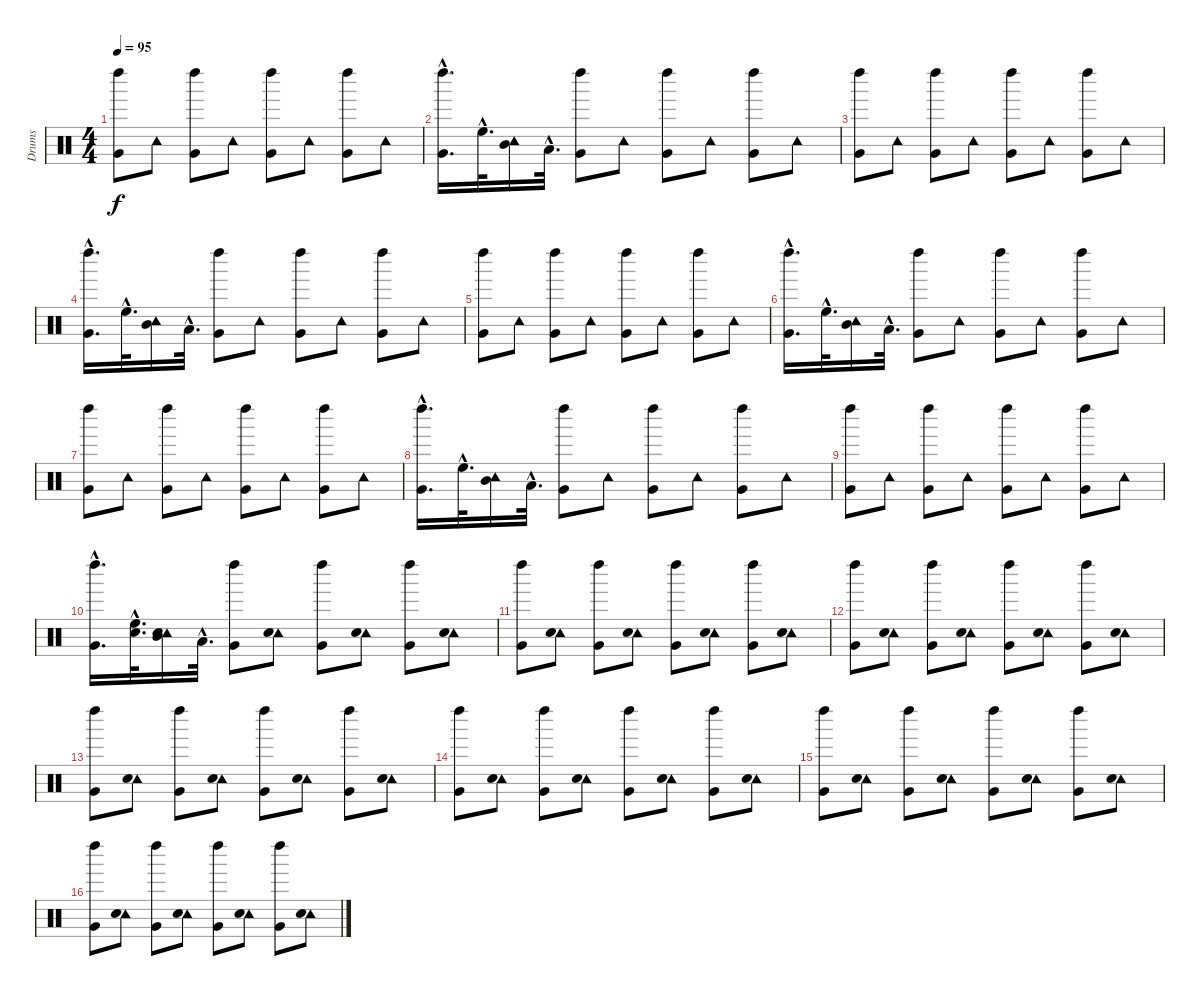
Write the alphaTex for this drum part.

\track ("Drums" "Drums") {instrument percussion}
\staff {score}
\articulation defaults
\ts (4 4)
\tempo 95
\clef neutral
\ks c
("Very Low Tom (hit)" "Left Maraca (hit)").8{dy f} "Tambourine (hit)".8 ("Very Low Tom (hit)" "Left Maraca (hit)").8 "Tambourine (hit)".8 ("Very Low Tom (hit)" "Left Maraca (hit)").8 "Tambourine (hit)".8 ("Very Low Tom (hit)" "Left Maraca (hit)").8 "Tambourine (hit)".8 |
("Very Low Tom (hit)"{hac} "Left Maraca (hit)"{hac}).16{d} "High Floor Tom (hit)"{hac}.32{d} ("Mid Tom (hit)" "Tambourine (hit)").16 "Low Tom (hit)"{hac}.32{d} ("Very Low Tom (hit)" "Left Maraca (hit)").8 "Tambourine (hit)".8 ("Very Low Tom (hit)" "Left Maraca (hit)").8 "Tambourine (hit)".8 ("Very Low Tom (hit)" "Left Maraca (hit)").8 "Tambourine (hit)".8 |
("Very Low Tom (hit)" "Left Maraca (hit)").8 "Tambourine (hit)".8 ("Very Low Tom (hit)" "Left Maraca (hit)").8 "Tambourine (hit)".8 ("Very Low Tom (hit)" "Left Maraca (hit)").8 "Tambourine (hit)".8 ("Very Low Tom (hit)" "Left Maraca (hit)").8 "Tambourine (hit)".8 |
("Very Low Tom (hit)"{hac} "Left Maraca (hit)"{hac}).16{d} "High Floor Tom (hit)"{hac}.32{d} ("Mid Tom (hit)" "Tambourine (hit)").16 "Low Tom (hit)"{hac}.32{d} ("Very Low Tom (hit)" "Left Maraca (hit)").8 "Tambourine (hit)".8 ("Very Low Tom (hit)" "Left Maraca (hit)").8 "Tambourine (hit)".8 ("Very Low Tom (hit)" "Left Maraca (hit)").8 "Tambourine (hit)".8 |
("Very Low Tom (hit)" "Left Maraca (hit)").8 "Tambourine (hit)".8 ("Very Low Tom (hit)" "Left Maraca (hit)").8 "Tambourine (hit)".8 ("Very Low Tom (hit)" "Left Maraca (hit)").8 "Tambourine (hit)".8 ("Very Low Tom (hit)" "Left Maraca (hit)").8 "Tambourine (hit)".8 |
("Very Low Tom (hit)"{hac} "Left Maraca (hit)"{hac}).16{d} "High Floor Tom (hit)"{hac}.32{d} ("Mid Tom (hit)" "Tambourine (hit)").16 "Low Tom (hit)"{hac}.32{d} ("Very Low Tom (hit)" "Left Maraca (hit)").8 "Tambourine (hit)".8 ("Very Low Tom (hit)" "Left Maraca (hit)").8 "Tambourine (hit)".8 ("Very Low Tom (hit)" "Left Maraca (hit)").8 "Tambourine (hit)".8 |
("Very Low Tom (hit)" "Left Maraca (hit)").8 "Tambourine (hit)".8 ("Very Low Tom (hit)" "Left Maraca (hit)").8 "Tambourine (hit)".8 ("Very Low Tom (hit)" "Left Maraca (hit)").8 "Tambourine (hit)".8 ("Very Low Tom (hit)" "Left Maraca (hit)").8 "Tambourine (hit)".8 |
("Very Low Tom (hit)"{hac} "Left Maraca (hit)"{hac}).16{d} "High Floor Tom (hit)"{hac}.32{d} ("Mid Tom (hit)" "Tambourine (hit)").16 "Low Tom (hit)"{hac}.32{d} ("Very Low Tom (hit)" "Left Maraca (hit)").8 "Tambourine (hit)".8 ("Very Low Tom (hit)" "Left Maraca (hit)").8 "Tambourine (hit)".8 ("Very Low Tom (hit)" "Left Maraca (hit)").8 "Tambourine (hit)".8 |
("Very Low Tom (hit)" "Left Maraca (hit)").8 "Tambourine (hit)".8 ("Very Low Tom (hit)" "Left Maraca (hit)").8 "Tambourine (hit)".8 ("Very Low Tom (hit)" "Left Maraca (hit)").8 "Tambourine (hit)".8 ("Very Low Tom (hit)" "Left Maraca (hit)").8 "Tambourine (hit)".8 |
("Very Low Tom (hit)"{hac} "Left Maraca (hit)"{hac}).16{d} ("High Floor Tom (hit)"{hac} "Snare (hit) 2"{hac}).32{d} ("Mid Tom (hit)" "Tambourine (hit)" "Snare (hit) 2").16 "Low Tom (hit)"{hac}.32{d} ("Very Low Tom (hit)" "Left Maraca (hit)").8 ("Tambourine (hit)" "Snare (hit) 2").8 ("Very Low Tom (hit)" "Left Maraca (hit)").8 ("Tambourine (hit)" "Snare (hit) 2").8 ("Very Low Tom (hit)" "Left Maraca (hit)").8 ("Tambourine (hit)" "Snare (hit) 2").8 |
("Very Low Tom (hit)" "Left Maraca (hit)").8 ("Tambourine (hit)" "Snare (hit) 2").8 ("Very Low Tom (hit)" "Left Maraca (hit)").8 ("Tambourine (hit)" "Snare (hit) 2").8 ("Very Low Tom (hit)" "Left Maraca (hit)").8 ("Tambourine (hit)" "Snare (hit) 2").8 ("Very Low Tom (hit)" "Left Maraca (hit)").8 ("Tambourine (hit)" "Snare (hit) 2").8 |
("Very Low Tom (hit)" "Left Maraca (hit)").8 ("Tambourine (hit)" "Snare (hit) 2").8 ("Very Low Tom (hit)" "Left Maraca (hit)").8 ("Tambourine (hit)" "Snare (hit) 2").8 ("Very Low Tom (hit)" "Left Maraca (hit)").8 ("Tambourine (hit)" "Snare (hit) 2").8 ("Very Low Tom (hit)" "Left Maraca (hit)").8 ("Tambourine (hit)" "Snare (hit) 2").8 |
("Very Low Tom (hit)" "Left Maraca (hit)").8 ("Tambourine (hit)" "Snare (hit) 2").8 ("Very Low Tom (hit)" "Left Maraca (hit)").8 ("Tambourine (hit)" "Snare (hit) 2").8 ("Very Low Tom (hit)" "Left Maraca (hit)").8 ("Tambourine (hit)" "Snare (hit) 2").8 ("Very Low Tom (hit)" "Left Maraca (hit)").8 ("Tambourine (hit)" "Snare (hit) 2").8 |
("Very Low Tom (hit)" "Left Maraca (hit)").8 ("Tambourine (hit)" "Snare (hit) 2").8 ("Very Low Tom (hit)" "Left Maraca (hit)").8 ("Tambourine (hit)" "Snare (hit) 2").8 ("Very Low Tom (hit)" "Left Maraca (hit)").8 ("Tambourine (hit)" "Snare (hit) 2").8 ("Very Low Tom (hit)" "Left Maraca (hit)").8 ("Tambourine (hit)" "Snare (hit) 2").8 |
("Very Low Tom (hit)" "Left Maraca (hit)").8 ("Tambourine (hit)" "Snare (hit) 2").8 ("Very Low Tom (hit)" "Left Maraca (hit)").8 ("Tambourine (hit)" "Snare (hit) 2").8 ("Very Low Tom (hit)" "Left Maraca (hit)").8 ("Tambourine (hit)" "Snare (hit) 2").8 ("Very Low Tom (hit)" "Left Maraca (hit)").8 ("Tambourine (hit)" "Snare (hit) 2").8 |
("Very Low Tom (hit)" "Left Maraca (hit)").8 ("Tambourine (hit)" "Snare (hit) 2").8 ("Very Low Tom (hit)" "Left Maraca (hit)").8 ("Tambourine (hit)" "Snare (hit) 2").8 ("Very Low Tom (hit)" "Left Maraca (hit)").8 ("Tambourine (hit)" "Snare (hit) 2").8 ("Very Low Tom (hit)" "Left Maraca (hit)").8 ("Tambourine (hit)" "Snare (hit) 2").8
